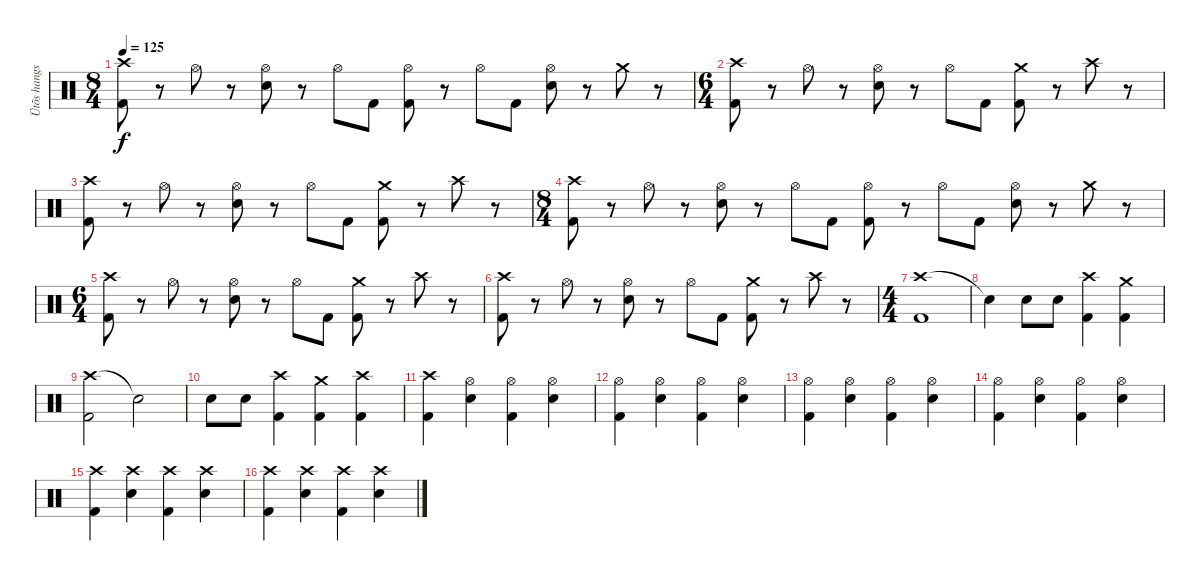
\track ("Ütõs hangszer" "Ütõs hangs") {instrument percussion}
\staff {score}
\articulation defaults
\ts (8 4)
\tempo 125
\clef neutral
\ks c
("Crash high (hit)" "Kick (hit) 2").8{dy f} r.8 "Hi-Hat (open)".8 r.8 ("Hi-Hat (open)" "Electric Snare (hit)").8 r.8 "Hi-Hat (open)".8 "Kick (hit) 2".8 ("Hi-Hat (open)" "Kick (hit) 2").8 r.8 "Hi-Hat (open)".8 "Kick (hit) 2".8 ("Hi-Hat (open)" "Electric Snare (hit)").8 r.8 "Crash medium (hit)".8 r.8 |
\ts (6 4)
("Crash high (hit)" "Kick (hit) 2").8 r.8 "Hi-Hat (open)".8 r.8 ("Hi-Hat (open)" "Electric Snare (hit)").8 r.8 "Hi-Hat (open)".8 "Kick (hit) 2".8 ("Crash medium (hit)" "Kick (hit) 2").8 r.8 "Crash high (hit)".8 r.8 |
("Crash high (hit)" "Kick (hit) 2").8 r.8 "Hi-Hat (open)".8 r.8 ("Hi-Hat (open)" "Electric Snare (hit)").8 r.8 "Hi-Hat (open)".8 "Kick (hit) 2".8 ("Crash medium (hit)" "Kick (hit) 2").8 r.8 "Crash high (hit)".8 r.8 |
\ts (8 4)
("Crash high (hit)" "Kick (hit) 2").8 r.8 "Hi-Hat (open)".8 r.8 ("Hi-Hat (open)" "Electric Snare (hit)").8 r.8 "Hi-Hat (open)".8 "Kick (hit) 2".8 ("Hi-Hat (open)" "Kick (hit) 2").8 r.8 "Hi-Hat (open)".8 "Kick (hit) 2".8 ("Hi-Hat (open)" "Electric Snare (hit)").8 r.8 "Crash medium (hit)".8 r.8 |
\ts (6 4)
("Crash high (hit)" "Kick (hit) 2").8 r.8 "Hi-Hat (open)".8 r.8 ("Hi-Hat (open)" "Electric Snare (hit)").8 r.8 "Hi-Hat (open)".8 "Kick (hit) 2".8 ("Crash medium (hit)" "Kick (hit) 2").8 r.8 "Crash high (hit)".8 r.8 |
("Crash high (hit)" "Kick (hit) 2").8 r.8 "Hi-Hat (open)".8 r.8 ("Hi-Hat (open)" "Electric Snare (hit)").8 r.8 "Hi-Hat (open)".8 "Kick (hit) 2".8 ("Crash medium (hit)" "Kick (hit) 2").8 r.8 "Crash high (hit)".8 r.8 |
\ts (4 4)
("Crash high (hit)" "Kick (hit) 2").1 |
"Snare (hit)"{t}.4 "Electric Snare (hit)".8 "Electric Snare (hit)".8 ("Crash high (hit)" "Kick (hit) 2").4 ("Crash medium (hit)" "Kick (hit) 2").4 |
("Crash high (hit)" "Kick (hit) 2").2 "Snare (hit)"{t}.2 |
"Electric Snare (hit)".8 "Electric Snare (hit)".8 ("Crash high (hit)" "Kick (hit) 2").4 ("Crash medium (hit)" "Kick (hit) 2").4 ("Crash high (hit)" "Kick (hit) 2").4 |
("Crash high (hit)" "Kick (hit) 2").4 ("Hi-Hat (open)" "Electric Snare (hit)").4 ("Hi-Hat (open)" "Kick (hit) 2").4 ("Hi-Hat (open)" "Electric Snare (hit)").4 |
("Hi-Hat (open)" "Kick (hit) 2").4 ("Hi-Hat (open)" "Electric Snare (hit)").4 ("Hi-Hat (open)" "Kick (hit) 2").4 ("Hi-Hat (open)" "Electric Snare (hit)").4 |
("Hi-Hat (open)" "Kick (hit) 2").4 ("Hi-Hat (open)" "Electric Snare (hit)").4 ("Hi-Hat (open)" "Kick (hit) 2").4 ("Hi-Hat (open)" "Electric Snare (hit)").4 |
("Hi-Hat (open)" "Kick (hit) 2").4 ("Hi-Hat (open)" "Electric Snare (hit)").4 ("Hi-Hat (open)" "Kick (hit) 2").4 ("Hi-Hat (open)" "Electric Snare (hit)").4 |
("Crash high (hit)" "Kick (hit) 2").4 ("Crash high (hit)" "Electric Snare (hit)").4 ("Crash high (hit)" "Kick (hit) 2").4 ("Crash high (hit)" "Electric Snare (hit)").4 |
("Crash high (hit)" "Kick (hit) 2").4 ("Crash high (hit)" "Electric Snare (hit)").4 ("Crash high (hit)" "Kick (hit) 2").4 ("Crash high (hit)" "Electric Snare (hit)").4
